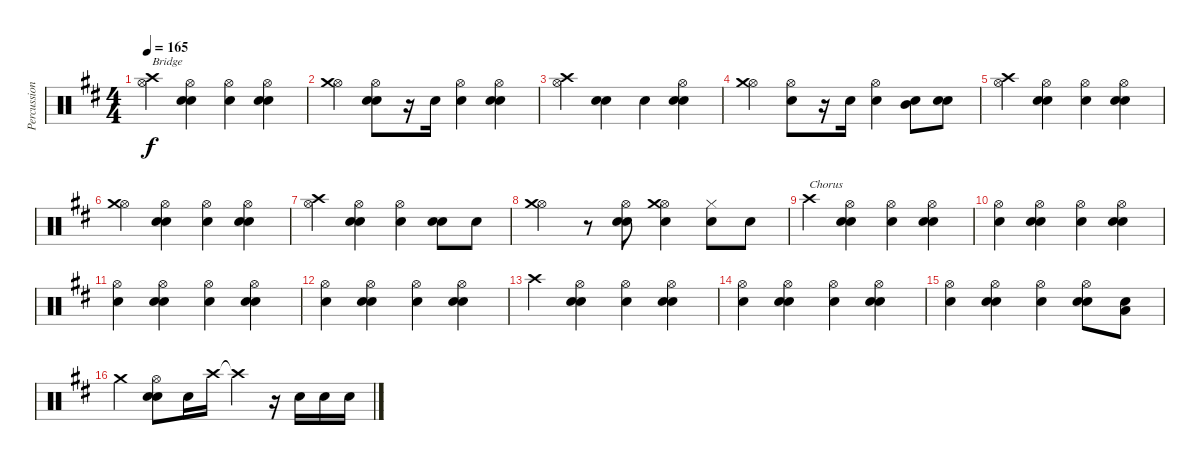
\track ("Percussion" "Percussion") {instrument percussion}
\staff {score}
\articulation defaults
\ts (4 4)
\tempo 165
\clef neutral
\ks d
("Hi-Hat (open)" "Crash high (hit)").4{txt "Bridge" dy f} ("Hi-Hat (open)" "Snare (hit) 2" "Electric Snare (hit)").4 ("Hi-Hat (open)" "Snare (hit) 2").4 ("Hi-Hat (open)" "Snare (hit) 2" "Electric Snare (hit)").4 |
("Hi-Hat (open)" "Crash medium (hit)").4 ("Hi-Hat (open)" "Snare (hit) 2" "Electric Snare (hit)").8 r.16 "Snare (hit) 2".16 ("Hi-Hat (open)" "Snare (hit) 2").4 ("Hi-Hat (open)" "Snare (hit) 2" "Electric Snare (hit)").4 |
("Hi-Hat (open)" "Crash high (hit)").4 ("Snare (hit) 2" "Electric Snare (hit)").4 "Snare (hit) 2".4 ("Hi-Hat (open)" "Snare (hit) 2" "Electric Snare (hit)").4 |
("Hi-Hat (open)" "Crash medium (hit)").4 ("Hi-Hat (open)" "Electric Snare (hit)").8 r.16 "Snare (hit) 2".16 ("Hi-Hat (open)" "Snare (hit) 2").4 ("Mid Tom (hit)" "Snare (hit) 2").8 ("Snare (hit) 2" "Electric Snare (hit)").8 |
("Hi-Hat (open)" "Crash high (hit)").4 ("Hi-Hat (open)" "Snare (hit) 2" "Electric Snare (hit)").4 ("Hi-Hat (open)" "Snare (hit) 2").4 ("Hi-Hat (open)" "Snare (hit) 2" "Electric Snare (hit)").4 |
("Hi-Hat (open)" "Crash medium (hit)").4 ("Hi-Hat (open)" "Snare (hit) 2" "Electric Snare (hit)").4 ("Hi-Hat (open)" "Snare (hit) 2").4 ("Hi-Hat (open)" "Snare (hit) 2" "Electric Snare (hit)").4 |
("Hi-Hat (open)" "Crash high (hit)").4 ("Hi-Hat (open)" "Snare (hit) 2" "Electric Snare (hit)").4 ("Hi-Hat (open)" "Snare (hit) 2").4 ("Snare (hit) 2" "Electric Snare (hit)").8 "Snare (hit) 2".8 |
("Hi-Hat (open)" "Crash medium (hit)").4 r.8 ("Hi-Hat (open)" "Snare (hit) 2" "Electric Snare (hit)").8 ("Hi-Hat (open)" "Snare (hit) 2" "Crash medium (hit)").4 ("Snare (hit) 2" "Hi-Hat (closed)").8 "Snare (hit) 2".8 |
"Crash high (hit)".4{txt "Chorus"} ("Hi-Hat (open)" "Snare (hit) 2" "Electric Snare (hit)").4 ("Hi-Hat (open)" "Snare (hit) 2").4 ("Hi-Hat (open)" "Snare (hit) 2" "Electric Snare (hit)").4 |
("Hi-Hat (open)" "Snare (hit) 2").4 ("Hi-Hat (open)" "Snare (hit) 2" "Electric Snare (hit)").4 ("Hi-Hat (open)" "Snare (hit) 2").4 ("Hi-Hat (open)" "Snare (hit) 2" "Electric Snare (hit)").4 |
("Hi-Hat (open)" "Snare (hit) 2").4 ("Hi-Hat (open)" "Snare (hit) 2" "Electric Snare (hit)").4 ("Hi-Hat (open)" "Snare (hit) 2").4 ("Hi-Hat (open)" "Snare (hit) 2" "Electric Snare (hit)").4 |
("Hi-Hat (open)" "Snare (hit) 2").4 ("Hi-Hat (open)" "Snare (hit) 2" "Electric Snare (hit)").4 ("Hi-Hat (open)" "Snare (hit) 2").4 ("Hi-Hat (open)" "Snare (hit) 2" "Electric Snare (hit)").4 |
"Crash high (hit)".4 ("Hi-Hat (open)" "Snare (hit) 2" "Electric Snare (hit)").4 ("Hi-Hat (open)" "Snare (hit) 2").4 ("Hi-Hat (open)" "Snare (hit) 2" "Electric Snare (hit)").4 |
("Hi-Hat (open)" "Snare (hit) 2").4 ("Hi-Hat (open)" "Snare (hit) 2" "Electric Snare (hit)").4 ("Hi-Hat (open)" "Snare (hit) 2").4 ("Hi-Hat (open)" "Snare (hit) 2" "Electric Snare (hit)").4 |
("Hi-Hat (open)" "Snare (hit) 2").4 ("Hi-Hat (open)" "Snare (hit) 2" "Electric Snare (hit)").4 ("Hi-Hat (open)" "Snare (hit) 2").4 ("Hi-Hat (open)" "Snare (hit) 2" "Electric Snare (hit)").8 ("Snare (hit) 2" "Low Floor Tom (hit)").8 |
"Crash medium (hit)".4 ("Hi-Hat (open)" "Snare (hit) 2" "Electric Snare (hit)").8 "Snare (hit) 2".16 "Crash high (hit)".16 "Crash high (hit)"{t}.4 r.16 "Snare (hit) 2".16 "Snare (hit) 2".16 "Snare (hit) 2".16
